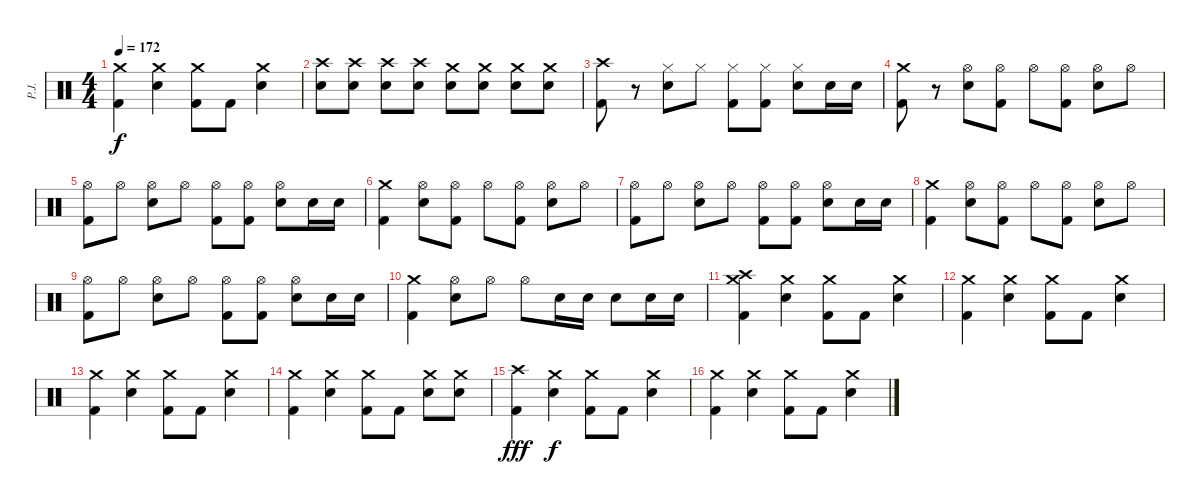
\track ("P.J." "P.J.") {instrument percussion}
\staff {score}
\articulation defaults
\ts (4 4)
\tempo 172
\clef neutral
\ks c
("Crash medium (hit)" "Kick (hit) 2").4{dy f} ("Crash medium (hit)" "Electric Snare (hit)").4 ("Crash medium (hit)" "Kick (hit) 2").8 "Kick (hit) 2".8 ("Crash medium (hit)" "Electric Snare (hit)").4 |
("Crash high (hit)" "Electric Snare (hit)").8 ("Crash high (hit)" "Electric Snare (hit)").8 ("Crash high (hit)" "Electric Snare (hit)").8 ("Crash high (hit)" "Electric Snare (hit)").8 ("Crash medium (hit)" "Electric Snare (hit)").8 ("Crash medium (hit)" "Electric Snare (hit)").8 ("Crash medium (hit)" "Electric Snare (hit)").8 ("Crash medium (hit)" "Electric Snare (hit)").8 |
("Crash high (hit)" "Kick (hit) 2").8 r.8 ("Hi-Hat (closed)" "Electric Snare (hit)").8 "Hi-Hat (closed)".8 ("Hi-Hat (closed)" "Kick (hit) 2").8 ("Hi-Hat (closed)" "Kick (hit) 2").8 ("Hi-Hat (closed)" "Electric Snare (hit)").8 "Electric Snare (hit)".16 "Electric Snare (hit)".16 |
("Crash medium (hit)" "Kick (hit) 2").8 r.8 ("Hi-Hat (open)" "Electric Snare (hit)").8 ("Hi-Hat (open)" "Kick (hit) 2").8 "Hi-Hat (open)".8 ("Hi-Hat (open)" "Kick (hit) 2").8 ("Hi-Hat (open)" "Electric Snare (hit)").8 "Hi-Hat (open)".8 |
("Hi-Hat (open)" "Kick (hit) 2").8 "Hi-Hat (open)".8 ("Hi-Hat (open)" "Electric Snare (hit)").8 "Hi-Hat (open)".8 ("Hi-Hat (open)" "Kick (hit) 2").8 ("Hi-Hat (open)" "Kick (hit) 2").8 ("Hi-Hat (open)" "Electric Snare (hit)").8 "Electric Snare (hit)".16 "Electric Snare (hit)".16 |
("Crash medium (hit)" "Kick (hit) 2").4 ("Hi-Hat (open)" "Electric Snare (hit)").8 ("Hi-Hat (open)" "Kick (hit) 2").8 "Hi-Hat (open)".8 ("Hi-Hat (open)" "Kick (hit) 2").8 ("Hi-Hat (open)" "Electric Snare (hit)").8 "Hi-Hat (open)".8 |
("Hi-Hat (open)" "Kick (hit) 2").8 "Hi-Hat (open)".8 ("Hi-Hat (open)" "Electric Snare (hit)").8 "Hi-Hat (open)".8 ("Hi-Hat (open)" "Kick (hit) 2").8 ("Hi-Hat (open)" "Kick (hit) 2").8 ("Hi-Hat (open)" "Electric Snare (hit)").8 "Electric Snare (hit)".16 "Electric Snare (hit)".16 |
("Crash medium (hit)" "Kick (hit) 2").4 ("Hi-Hat (open)" "Electric Snare (hit)").8 ("Hi-Hat (open)" "Kick (hit) 2").8 "Hi-Hat (open)".8 ("Hi-Hat (open)" "Kick (hit) 2").8 ("Hi-Hat (open)" "Electric Snare (hit)").8 "Hi-Hat (open)".8 |
("Hi-Hat (open)" "Kick (hit) 2").8 "Hi-Hat (open)".8 ("Hi-Hat (open)" "Electric Snare (hit)").8 "Hi-Hat (open)".8 ("Hi-Hat (open)" "Kick (hit) 2").8 ("Hi-Hat (open)" "Kick (hit) 2").8 ("Hi-Hat (open)" "Electric Snare (hit)").8 "Electric Snare (hit)".16 "Electric Snare (hit)".16 |
("Crash medium (hit)" "Kick (hit) 2").4 ("Hi-Hat (open)" "Electric Snare (hit)").8 "Hi-Hat (open)".8 "Hi-Hat (open)".8 "Electric Snare (hit)".16 "Electric Snare (hit)".16 "Electric Snare (hit)".8 "Electric Snare (hit)".16 "Electric Snare (hit)".16 |
("Crash high (hit)" "Crash medium (hit)" "Kick (hit) 2").4 ("Crash medium (hit)" "Electric Snare (hit)").4 ("Crash medium (hit)" "Kick (hit) 2").8 "Kick (hit) 2".8 ("Crash medium (hit)" "Electric Snare (hit)").4 |
("Crash medium (hit)" "Kick (hit) 2").4 ("Crash medium (hit)" "Electric Snare (hit)").4 ("Crash medium (hit)" "Kick (hit) 2").8 "Kick (hit) 2".8 ("Crash medium (hit)" "Electric Snare (hit)").4 |
("Crash medium (hit)" "Kick (hit) 2").4 ("Crash medium (hit)" "Electric Snare (hit)").4 ("Crash medium (hit)" "Kick (hit) 2").8 "Kick (hit) 2".8 ("Crash medium (hit)" "Electric Snare (hit)").4 |
("Crash medium (hit)" "Kick (hit) 2").4 ("Crash medium (hit)" "Electric Snare (hit)").4 ("Crash medium (hit)" "Kick (hit) 2").8 "Kick (hit) 2".8 ("Crash medium (hit)" "Electric Snare (hit)").8 ("Crash medium (hit)" "Electric Snare (hit)").8 |
("Crash high (hit)" "Kick (hit) 2").4{dy fff} ("Crash medium (hit)" "Electric Snare (hit)").4{dy f} ("Crash medium (hit)" "Kick (hit) 2").8 "Kick (hit) 2".8 ("Crash medium (hit)" "Electric Snare (hit)").4 |
("Crash medium (hit)" "Kick (hit) 2").4 ("Crash medium (hit)" "Electric Snare (hit)").4 ("Crash medium (hit)" "Kick (hit) 2").8 "Kick (hit) 2".8 ("Crash medium (hit)" "Electric Snare (hit)").4
